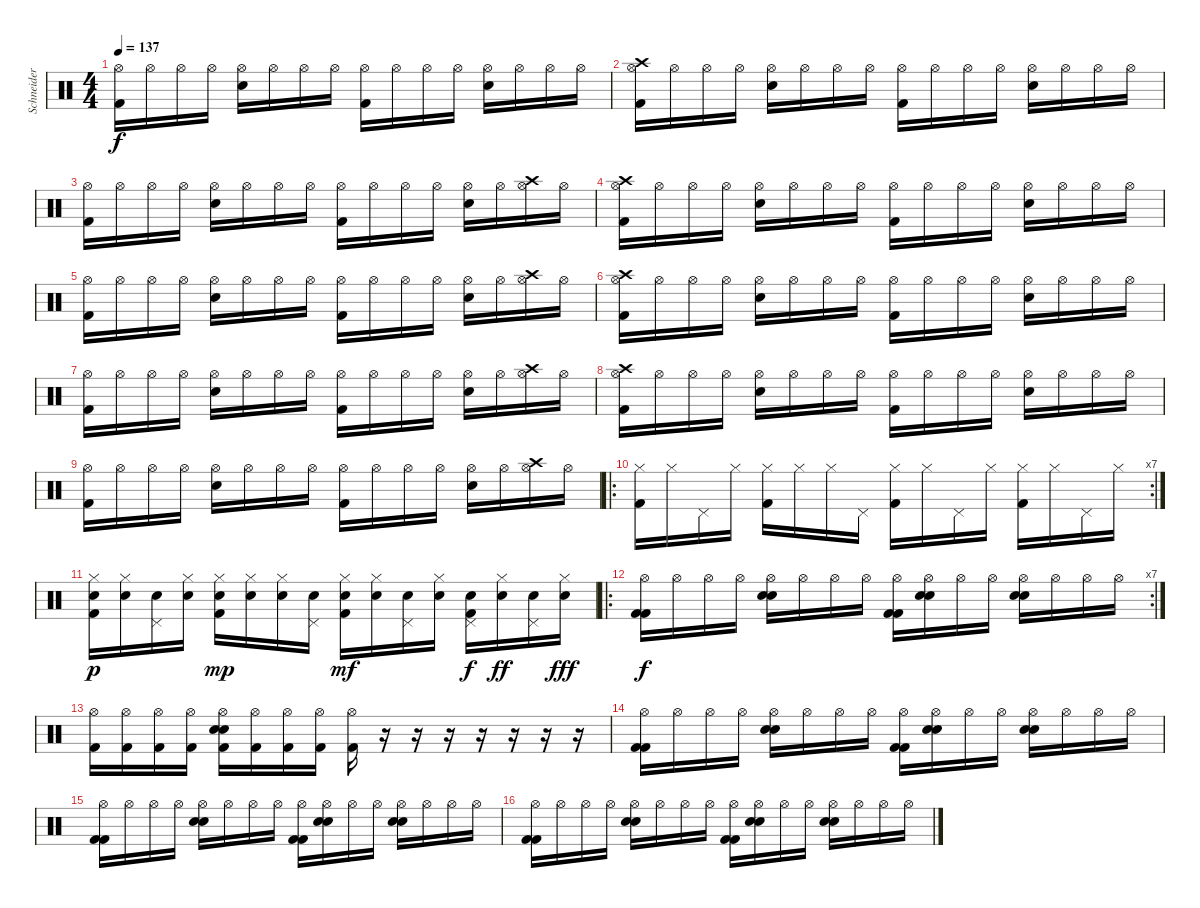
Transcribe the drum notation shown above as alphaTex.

\track ("Schneider" "Schneider") {instrument percussion}
\staff {score}
\articulation defaults
\ts (4 4)
\tempo 137
\clef neutral
\ks c
("Hi-Hat (open)" "Kick (hit) 2").16{dy f} "Hi-Hat (open)".16 "Hi-Hat (open)".16 "Hi-Hat (open)".16 ("Hi-Hat (open)" "Electric Snare (hit)").16 "Hi-Hat (open)".16 "Hi-Hat (open)".16 "Hi-Hat (open)".16 ("Hi-Hat (open)" "Kick (hit) 2").16 "Hi-Hat (open)".16 "Hi-Hat (open)".16 "Hi-Hat (open)".16 ("Hi-Hat (open)" "Electric Snare (hit)").16 "Hi-Hat (open)".16 "Hi-Hat (open)".16 "Hi-Hat (open)".16 |
("Crash high (hit)" "Hi-Hat (open)" "Kick (hit) 2").16 "Hi-Hat (open)".16 "Hi-Hat (open)".16 "Hi-Hat (open)".16 ("Hi-Hat (open)" "Electric Snare (hit)").16 "Hi-Hat (open)".16 "Hi-Hat (open)".16 "Hi-Hat (open)".16 ("Hi-Hat (open)" "Kick (hit) 2").16 "Hi-Hat (open)".16 "Hi-Hat (open)".16 "Hi-Hat (open)".16 ("Hi-Hat (open)" "Electric Snare (hit)").16 "Hi-Hat (open)".16 "Hi-Hat (open)".16 "Hi-Hat (open)".16 |
("Hi-Hat (open)" "Kick (hit) 2").16 "Hi-Hat (open)".16 "Hi-Hat (open)".16 "Hi-Hat (open)".16 ("Hi-Hat (open)" "Electric Snare (hit)").16 "Hi-Hat (open)".16 "Hi-Hat (open)".16 "Hi-Hat (open)".16 ("Hi-Hat (open)" "Kick (hit) 2").16 "Hi-Hat (open)".16 "Hi-Hat (open)".16 "Hi-Hat (open)".16 ("Hi-Hat (open)" "Electric Snare (hit)").16 "Hi-Hat (open)".16 ("Crash high (hit)" "Hi-Hat (open)").16 "Hi-Hat (open)".16 |
("Crash high (hit)" "Hi-Hat (open)" "Kick (hit) 2").16 "Hi-Hat (open)".16 "Hi-Hat (open)".16 "Hi-Hat (open)".16 ("Hi-Hat (open)" "Electric Snare (hit)").16 "Hi-Hat (open)".16 "Hi-Hat (open)".16 "Hi-Hat (open)".16 ("Hi-Hat (open)" "Kick (hit) 2").16 "Hi-Hat (open)".16 "Hi-Hat (open)".16 "Hi-Hat (open)".16 ("Hi-Hat (open)" "Electric Snare (hit)").16 "Hi-Hat (open)".16 "Hi-Hat (open)".16 "Hi-Hat (open)".16 |
("Hi-Hat (open)" "Kick (hit) 2").16 "Hi-Hat (open)".16 "Hi-Hat (open)".16 "Hi-Hat (open)".16 ("Hi-Hat (open)" "Electric Snare (hit)").16 "Hi-Hat (open)".16 "Hi-Hat (open)".16 "Hi-Hat (open)".16 ("Hi-Hat (open)" "Kick (hit) 2").16 "Hi-Hat (open)".16 "Hi-Hat (open)".16 "Hi-Hat (open)".16 ("Hi-Hat (open)" "Electric Snare (hit)").16 "Hi-Hat (open)".16 ("Crash high (hit)" "Hi-Hat (open)").16 "Hi-Hat (open)".16 |
("Crash high (hit)" "Hi-Hat (open)" "Kick (hit) 2").16 "Hi-Hat (open)".16 "Hi-Hat (open)".16 "Hi-Hat (open)".16 ("Hi-Hat (open)" "Electric Snare (hit)").16 "Hi-Hat (open)".16 "Hi-Hat (open)".16 "Hi-Hat (open)".16 ("Hi-Hat (open)" "Kick (hit) 2").16 "Hi-Hat (open)".16 "Hi-Hat (open)".16 "Hi-Hat (open)".16 ("Hi-Hat (open)" "Electric Snare (hit)").16 "Hi-Hat (open)".16 "Hi-Hat (open)".16 "Hi-Hat (open)".16 |
("Hi-Hat (open)" "Kick (hit) 2").16 "Hi-Hat (open)".16 "Hi-Hat (open)".16 "Hi-Hat (open)".16 ("Hi-Hat (open)" "Electric Snare (hit)").16 "Hi-Hat (open)".16 "Hi-Hat (open)".16 "Hi-Hat (open)".16 ("Hi-Hat (open)" "Kick (hit) 2").16 "Hi-Hat (open)".16 "Hi-Hat (open)".16 "Hi-Hat (open)".16 ("Hi-Hat (open)" "Electric Snare (hit)").16 "Hi-Hat (open)".16 ("Crash high (hit)" "Hi-Hat (open)").16 "Hi-Hat (open)".16 |
("Crash high (hit)" "Hi-Hat (open)" "Kick (hit) 2").16 "Hi-Hat (open)".16 "Hi-Hat (open)".16 "Hi-Hat (open)".16 ("Hi-Hat (open)" "Electric Snare (hit)").16 "Hi-Hat (open)".16 "Hi-Hat (open)".16 "Hi-Hat (open)".16 ("Hi-Hat (open)" "Kick (hit) 2").16 "Hi-Hat (open)".16 "Hi-Hat (open)".16 "Hi-Hat (open)".16 ("Hi-Hat (open)" "Electric Snare (hit)").16 "Hi-Hat (open)".16 "Hi-Hat (open)".16 "Hi-Hat (open)".16 |
("Hi-Hat (open)" "Kick (hit) 2").16 "Hi-Hat (open)".16 "Hi-Hat (open)".16 "Hi-Hat (open)".16 ("Hi-Hat (open)" "Electric Snare (hit)").16 "Hi-Hat (open)".16 "Hi-Hat (open)".16 "Hi-Hat (open)".16 ("Hi-Hat (open)" "Kick (hit) 2").16 "Hi-Hat (open)".16 "Hi-Hat (open)".16 "Hi-Hat (open)".16 ("Hi-Hat (open)" "Electric Snare (hit)").16 "Hi-Hat (open)".16 ("Crash high (hit)" "Hi-Hat (open)").16 "Hi-Hat (open)".16 |
\ro
\rc 7
("Hi-Hat (closed)" "Kick (hit) 2").16 "Hi-Hat (closed)".16 "Pedal Hi-Hat (hit)".16 "Hi-Hat (closed)".16 ("Hi-Hat (closed)" "Kick (hit) 2").16 "Hi-Hat (closed)".16 "Hi-Hat (closed)".16 "Pedal Hi-Hat (hit)".16 ("Hi-Hat (closed)" "Kick (hit) 2").16 "Hi-Hat (closed)".16 "Pedal Hi-Hat (hit)".16 "Hi-Hat (closed)".16 ("Hi-Hat (closed)" "Kick (hit) 2").16 "Hi-Hat (closed)".16 "Pedal Hi-Hat (hit)".16 "Hi-Hat (closed)".16 |
("Electric Snare (hit)" "Hi-Hat (closed)" "Kick (hit) 2").16{dy p} ("Electric Snare (hit)" "Hi-Hat (closed)").16 ("Electric Snare (hit)" "Pedal Hi-Hat (hit)").16 ("Electric Snare (hit)" "Hi-Hat (closed)").16 ("Electric Snare (hit)" "Hi-Hat (closed)" "Kick (hit) 2").16{dy mp} ("Electric Snare (hit)" "Hi-Hat (closed)").16 ("Electric Snare (hit)" "Hi-Hat (closed)").16 ("Electric Snare (hit)" "Pedal Hi-Hat (hit)").16 ("Electric Snare (hit)" "Hi-Hat (closed)" "Kick (hit) 2").16{dy mf} ("Electric Snare (hit)" "Hi-Hat (closed)").16 ("Electric Snare (hit)" "Pedal Hi-Hat (hit)").16 ("Electric Snare (hit)" "Hi-Hat (closed)").16 ("Electric Snare (hit)" "Pedal Hi-Hat (hit)" "Kick (hit) 2").16{dy f} ("Electric Snare (hit)" "Hi-Hat (closed)").16{dy ff} ("Electric Snare (hit)" "Pedal Hi-Hat (hit)").16 ("Electric Snare (hit)" "Hi-Hat (closed)").16{dy fff} |
\ro
\rc 7
("Hi-Hat (open)" "Kick (hit) 2" "Kick (hit) 2").16{dy f} "Hi-Hat (open)".16 "Hi-Hat (open)".16 "Hi-Hat (open)".16 ("Hi-Hat (open)" "Electric Snare (hit)" "Electric Snare (hit)").16 "Hi-Hat (open)".16 "Hi-Hat (open)".16 "Hi-Hat (open)".16 ("Hi-Hat (open)" "Kick (hit) 2" "Kick (hit) 2").16 ("Hi-Hat (open)" "Electric Snare (hit)" "Electric Snare (hit)").16 "Hi-Hat (open)".16 "Hi-Hat (open)".16 ("Hi-Hat (open)" "Electric Snare (hit)" "Electric Snare (hit)").16 "Hi-Hat (open)".16 "Hi-Hat (open)".16 "Hi-Hat (open)".16 |
("Hi-Hat (open)" "Kick (hit) 2").16 ("Hi-Hat (open)" "Kick (hit) 2").16 ("Hi-Hat (open)" "Kick (hit) 2").16 ("Hi-Hat (open)" "Kick (hit) 2").16 ("Hi-Hat (open)" "Electric Snare (hit)" "Electric Snare (hit)" "Kick (hit) 2").16 ("Hi-Hat (open)" "Kick (hit) 2").16 ("Hi-Hat (open)" "Kick (hit) 2").16 ("Hi-Hat (open)" "Kick (hit) 2").16 ("Hi-Hat (open)" "Kick (hit) 2").16 r.16 r.16 r.16 r.16 r.16 r.16 r.16 |
("Hi-Hat (open)" "Kick (hit) 2" "Kick (hit) 2").16 "Hi-Hat (open)".16 "Hi-Hat (open)".16 "Hi-Hat (open)".16 ("Hi-Hat (open)" "Electric Snare (hit)" "Electric Snare (hit)").16 "Hi-Hat (open)".16 "Hi-Hat (open)".16 "Hi-Hat (open)".16 ("Hi-Hat (open)" "Kick (hit) 2" "Kick (hit) 2").16 ("Hi-Hat (open)" "Electric Snare (hit)" "Electric Snare (hit)").16 "Hi-Hat (open)".16 "Hi-Hat (open)".16 ("Hi-Hat (open)" "Electric Snare (hit)" "Electric Snare (hit)").16 "Hi-Hat (open)".16 "Hi-Hat (open)".16 "Hi-Hat (open)".16 |
("Hi-Hat (open)" "Kick (hit) 2" "Kick (hit) 2").16 "Hi-Hat (open)".16 "Hi-Hat (open)".16 "Hi-Hat (open)".16 ("Hi-Hat (open)" "Electric Snare (hit)" "Electric Snare (hit)").16 "Hi-Hat (open)".16 "Hi-Hat (open)".16 "Hi-Hat (open)".16 ("Hi-Hat (open)" "Kick (hit) 2" "Kick (hit) 2").16 ("Hi-Hat (open)" "Electric Snare (hit)" "Electric Snare (hit)").16 "Hi-Hat (open)".16 "Hi-Hat (open)".16 ("Hi-Hat (open)" "Electric Snare (hit)" "Electric Snare (hit)").16 "Hi-Hat (open)".16 "Hi-Hat (open)".16 "Hi-Hat (open)".16 |
("Hi-Hat (open)" "Kick (hit) 2" "Kick (hit) 2").16 "Hi-Hat (open)".16 "Hi-Hat (open)".16 "Hi-Hat (open)".16 ("Hi-Hat (open)" "Electric Snare (hit)" "Electric Snare (hit)").16 "Hi-Hat (open)".16 "Hi-Hat (open)".16 "Hi-Hat (open)".16 ("Hi-Hat (open)" "Kick (hit) 2" "Kick (hit) 2").16 ("Hi-Hat (open)" "Electric Snare (hit)" "Electric Snare (hit)").16 "Hi-Hat (open)".16 "Hi-Hat (open)".16 ("Hi-Hat (open)" "Electric Snare (hit)" "Electric Snare (hit)").16 "Hi-Hat (open)".16 "Hi-Hat (open)".16 "Hi-Hat (open)".16
